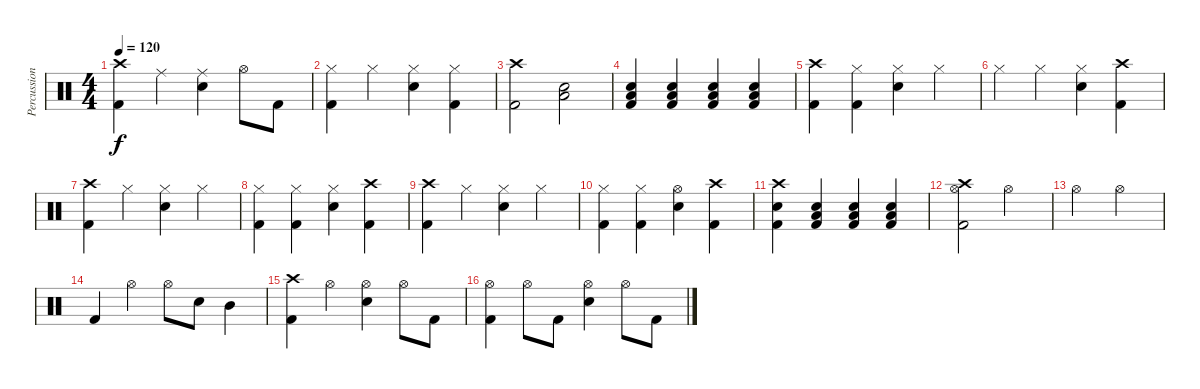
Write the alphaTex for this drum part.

\track ("Percussion" "Percussion") {instrument percussion}
\staff {score}
\articulation defaults
\ts (4 4)
\tempo 120
\clef neutral
\ks c
("Crash high (hit)" "Kick (hit) 2").4{dy f} "Ride (middle)".4 ("Ride (middle)" "Snare (hit) 2").4 "Hi-Hat (open)".8 "Kick (hit) 2".8 |
("Hi-Hat (closed)" "Kick (hit) 2").4 "Hi-Hat (closed)".4 ("Hi-Hat (closed)" "Snare (hit) 2").4 ("Hi-Hat (closed)" "Kick (hit) 2").4 |
("Crash high (hit)" "Kick (hit) 2").2 ("Low Tom (hit)" "Snare (hit) 2").2 |
("Low Floor Tom (hit)" "Snare (hit) 2" "Kick (hit) 2").4 ("Low Floor Tom (hit)" "Snare (hit) 2" "Kick (hit) 2").4 ("Low Floor Tom (hit)" "Snare (hit) 2" "Kick (hit) 2").4 ("Low Floor Tom (hit)" "Snare (hit) 2" "Kick (hit) 2").4 |
("Crash high (hit)" "Kick (hit) 2").4 ("Hi-Hat (closed)" "Kick (hit) 2").4 ("Hi-Hat (closed)" "Snare (hit) 2").4 "Hi-Hat (closed)".4 |
"Hi-Hat (closed)".4 "Hi-Hat (closed)".4 ("Hi-Hat (closed)" "Snare (hit) 2").4 ("Crash high (hit)" "Kick (hit) 2").4 |
("Crash high (hit)" "Kick (hit) 2").4 "Hi-Hat (closed)".4 ("Hi-Hat (closed)" "Snare (hit) 2").4 "Hi-Hat (closed)".4 |
("Hi-Hat (closed)" "Kick (hit) 2").4 ("Hi-Hat (closed)" "Kick (hit) 2").4 ("Hi-Hat (closed)" "Snare (hit) 2").4 ("Crash high (hit)" "Kick (hit) 2").4 |
("Crash high (hit)" "Kick (hit) 2").4 "Hi-Hat (closed)".4 ("Hi-Hat (closed)" "Snare (hit) 2").4 "Hi-Hat (closed)".4 |
("Hi-Hat (closed)" "Kick (hit) 2").4 ("Hi-Hat (closed)" "Kick (hit) 2").4 ("Hi-Hat (open)" "Snare (hit) 2").4 ("Crash high (hit)" "Kick (hit) 2").4 |
("Crash high (hit)" "Snare (hit) 2" "Kick (hit) 2").4 ("Low Floor Tom (hit)" "Snare (hit) 2" "Kick (hit) 2").4 ("Low Floor Tom (hit)" "Snare (hit) 2" "Kick (hit) 2").4 ("Low Floor Tom (hit)" "Snare (hit) 2" "Kick (hit) 2").4 |
("Crash high (hit)" "Hi-Hat (open)" "Kick (hit) 2").2 "Hi-Hat (open)".2 |
"Hi-Hat (open)".2 "Hi-Hat (open)".2 |
"Kick (hit) 2".4 "Hi-Hat (open)".4 "Hi-Hat (open)".8 "Snare (hit) 2".8 "Mid Tom (hit)".4 |
("Crash high (hit)" "Kick (hit) 2").4 "Hi-Hat (open)".4 ("Hi-Hat (open)" "Snare (hit) 2").4 "Hi-Hat (open)".8 "Kick (hit) 2".8 |
("Hi-Hat (open)" "Kick (hit) 2").4 "Hi-Hat (open)".8 "Kick (hit) 2".8 ("Hi-Hat (open)" "Snare (hit) 2").4 "Hi-Hat (open)".8 "Kick (hit) 2".8
